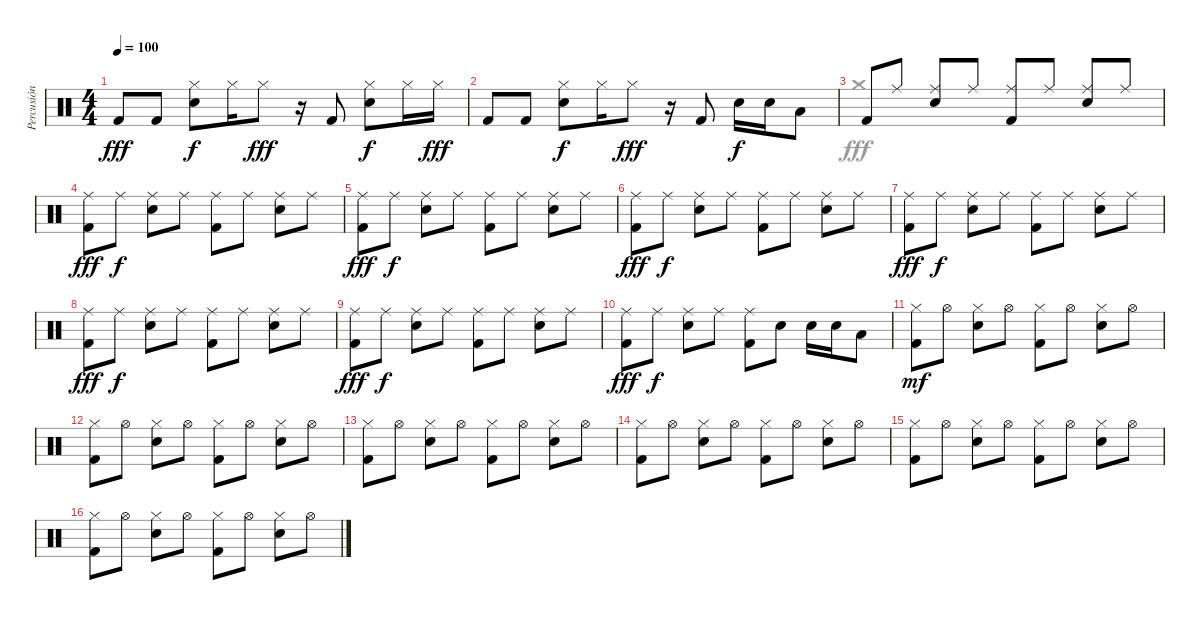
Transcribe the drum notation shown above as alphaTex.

\track ("Percusión" "Percusión") {instrument percussion}
\staff {score}
\articulation defaults
\voice
\ts (4 4)
\tempo 100
\clef neutral
\ks c "Kick (hit) 2".8{dy fff} "Kick (hit) 2".8
("Hi-Hat (closed)" "Electric Snare (hit)").8{dy f} "Hi-Hat (closed)".16 "Hi-Hat (closed)".8{dy fff} r.16 "Kick (hit) 2".8 ("Hi-Hat (closed)" "Electric Snare (hit)").8{dy f} "Hi-Hat (closed)".16 "Hi-Hat (closed)".16{dy fff} |
"Kick (hit) 2".8 "Kick (hit) 2".8 ("Hi-Hat (closed)" "Electric Snare (hit)").8{dy f} "Hi-Hat (closed)".16 "Hi-Hat (closed)".8{dy fff} r.16 "Kick (hit) 2".8 "Electric Snare (hit)".16{dy f} "Electric Snare (hit)".16 "Low Tom (hit)".8 |
"Kick (hit) 2".8 "Ride (middle)".8 ("Ride (middle)" "Electric Snare (hit)").8 "Ride (middle)".8 ("Ride (middle)" "Kick (hit) 2").8 "Ride (middle)".8 ("Ride (middle)" "Electric Snare (hit)").8 "Ride (middle)".8 |
("Ride (middle)" "Kick (hit) 2").8{dy fff} "Ride (middle)".8{dy f} ("Ride (middle)" "Electric Snare (hit)").8 "Ride (middle)".8 ("Ride (middle)" "Kick (hit) 2").8 "Ride (middle)".8 ("Ride (middle)" "Electric Snare (hit)").8 "Ride (middle)".8 |
("Ride (middle)" "Kick (hit) 2").8{dy fff} "Ride (middle)".8{dy f} ("Ride (middle)" "Electric Snare (hit)").8 "Ride (middle)".8 ("Ride (middle)" "Kick (hit) 2").8 "Ride (middle)".8 ("Ride (middle)" "Electric Snare (hit)").8 "Ride (middle)".8 |
("Ride (middle)" "Kick (hit) 2").8{dy fff} "Ride (middle)".8{dy f} ("Ride (middle)" "Electric Snare (hit)").8 "Ride (middle)".8 ("Ride (middle)" "Kick (hit) 2").8 "Ride (middle)".8 ("Ride (middle)" "Electric Snare (hit)").8 "Ride (middle)".8 |
("Ride (middle)" "Kick (hit) 2").8{dy fff} "Ride (middle)".8{dy f} ("Ride (middle)" "Electric Snare (hit)").8 "Ride (middle)".8 ("Ride (middle)" "Kick (hit) 2").8 "Ride (middle)".8 ("Ride (middle)" "Electric Snare (hit)").8 "Ride (middle)".8 |
("Ride (middle)" "Kick (hit) 2").8{dy fff} "Ride (middle)".8{dy f} ("Ride (middle)" "Electric Snare (hit)").8 "Ride (middle)".8 ("Ride (middle)" "Kick (hit) 2").8 "Ride (middle)".8 ("Ride (middle)" "Electric Snare (hit)").8 "Ride (middle)".8 |
("Ride (middle)" "Kick (hit) 2").8{dy fff} "Ride (middle)".8{dy f} ("Ride (middle)" "Electric Snare (hit)").8 "Ride (middle)".8 ("Ride (middle)" "Kick (hit) 2").8 "Ride (middle)".8 ("Ride (middle)" "Electric Snare (hit)").8 "Ride (middle)".8 |
("Ride (middle)" "Kick (hit) 2").8{dy fff} "Ride (middle)".8{dy f} ("Ride (middle)" "Electric Snare (hit)").8 "Ride (middle)".8 ("Ride (middle)" "Kick (hit) 2").8 "Electric Snare (hit)".8 "Electric Snare (hit)".16 "Electric Snare (hit)".16 "Low Tom (hit)".8 |
("Hi-Hat (closed)" "Kick (hit) 2").8{dy mf} "Hi-Hat (open)".8 ("Hi-Hat (closed)" "Electric Snare (hit)").8 "Hi-Hat (open)".8 ("Hi-Hat (closed)" "Kick (hit) 2").8 "Hi-Hat (open)".8 ("Hi-Hat (closed)" "Electric Snare (hit)").8 "Hi-Hat (open)".8 |
("Hi-Hat (closed)" "Kick (hit) 2").8 "Hi-Hat (open)".8 ("Hi-Hat (closed)" "Electric Snare (hit)").8 "Hi-Hat (open)".8 ("Hi-Hat (closed)" "Kick (hit) 2").8 "Hi-Hat (open)".8 ("Hi-Hat (closed)" "Electric Snare (hit)").8 "Hi-Hat (open)".8 |
("Hi-Hat (closed)" "Kick (hit) 2").8 "Hi-Hat (open)".8 ("Hi-Hat (closed)" "Electric Snare (hit)").8 "Hi-Hat (open)".8 ("Hi-Hat (closed)" "Kick (hit) 2").8 "Hi-Hat (open)".8 ("Hi-Hat (closed)" "Electric Snare (hit)").8 "Hi-Hat (open)".8 |
("Hi-Hat (closed)" "Kick (hit) 2").8 "Hi-Hat (open)".8 ("Hi-Hat (closed)" "Electric Snare (hit)").8 "Hi-Hat (open)".8 ("Hi-Hat (closed)" "Kick (hit) 2").8 "Hi-Hat (open)".8 ("Hi-Hat (closed)" "Electric Snare (hit)").8 "Hi-Hat (open)".8 |
("Hi-Hat (closed)" "Kick (hit) 2").8 "Hi-Hat (open)".8 ("Hi-Hat (closed)" "Electric Snare (hit)").8 "Hi-Hat (open)".8 ("Hi-Hat (closed)" "Kick (hit) 2").8 "Hi-Hat (open)".8 ("Hi-Hat (closed)" "Electric Snare (hit)").8 "Hi-Hat (open)".8 |
("Hi-Hat (closed)" "Kick (hit) 2").8 "Hi-Hat (open)".8 ("Hi-Hat (closed)" "Electric Snare (hit)").8 "Hi-Hat (open)".8 ("Hi-Hat (closed)" "Kick (hit) 2").8 "Hi-Hat (open)".8 ("Hi-Hat (closed)" "Electric Snare (hit)").8 "Hi-Hat (open)".8
\voice
\clef neutral
\ottava regular
\simile none
\ks c
|
|
"Crash medium (hit)".1{dy fff} |
|
|
|
|
|
|
|
|
|
|
|
|
